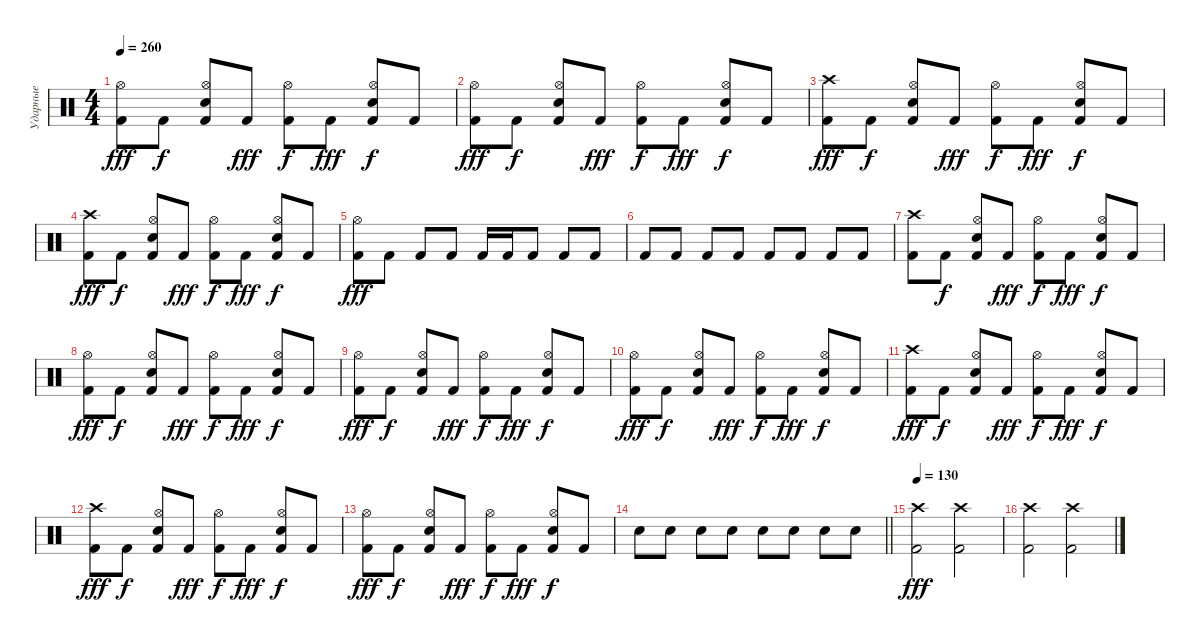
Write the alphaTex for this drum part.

\track ("Ударные" "Ударные") {instrument percussion}
\staff {score}
\articulation defaults
\ts (4 4)
\tempo 260
\clef neutral
\ks c
("Kick (hit) 2" "Hi-Hat (open)").8{dy fff} "Kick (hit) 2".8{dy f} ("Kick (hit) 2" "Snare (hit) 2" "Hi-Hat (open)").8 "Kick (hit) 2".8{dy fff} ("Kick (hit) 2" "Hi-Hat (open)").8{dy f} "Kick (hit) 2".8{dy fff} ("Kick (hit) 2" "Snare (hit) 2" "Hi-Hat (open)").8{dy f} "Kick (hit) 2".8 |
("Kick (hit) 2" "Hi-Hat (open)").8{dy fff} "Kick (hit) 2".8{dy f} ("Kick (hit) 2" "Snare (hit) 2" "Hi-Hat (open)").8 "Kick (hit) 2".8{dy fff} ("Kick (hit) 2" "Hi-Hat (open)").8{dy f} "Kick (hit) 2".8{dy fff} ("Kick (hit) 2" "Snare (hit) 2" "Hi-Hat (open)").8{dy f} "Kick (hit) 2".8 |
("Kick (hit) 2" "Crash high (hit)").8{dy fff} "Kick (hit) 2".8{dy f} ("Kick (hit) 2" "Snare (hit) 2" "Hi-Hat (open)").8 "Kick (hit) 2".8{dy fff} ("Kick (hit) 2" "Hi-Hat (open)").8{dy f} "Kick (hit) 2".8{dy fff} ("Kick (hit) 2" "Snare (hit) 2" "Hi-Hat (open)").8{dy f} "Kick (hit) 2".8 |
("Kick (hit) 2" "Crash high (hit)").8{dy fff} "Kick (hit) 2".8{dy f} ("Kick (hit) 2" "Snare (hit) 2" "Hi-Hat (open)").8 "Kick (hit) 2".8{dy fff} ("Kick (hit) 2" "Hi-Hat (open)").8{dy f} "Kick (hit) 2".8{dy fff} ("Kick (hit) 2" "Snare (hit) 2" "Hi-Hat (open)").8{dy f} "Kick (hit) 2".8 |
("Kick (hit) 2" "Hi-Hat (open)").8{dy fff} "Kick (hit) 2".8 "Kick (hit) 2".8 "Kick (hit) 2".8 "Kick (hit) 2".16 "Kick (hit) 2".16 "Kick (hit) 2".8 "Kick (hit) 2".8 "Kick (hit) 2".8 |
"Kick (hit) 2".8 "Kick (hit) 2".8 "Kick (hit) 2".8 "Kick (hit) 2".8 "Kick (hit) 2".8 "Kick (hit) 2".8 "Kick (hit) 2".8 "Kick (hit) 2".8 |
("Kick (hit) 2" "Crash high (hit)").8 "Kick (hit) 2".8{dy f} ("Kick (hit) 2" "Snare (hit) 2" "Hi-Hat (open)").8 "Kick (hit) 2".8{dy fff} ("Kick (hit) 2" "Hi-Hat (open)").8{dy f} "Kick (hit) 2".8{dy fff} ("Kick (hit) 2" "Snare (hit) 2" "Hi-Hat (open)").8{dy f} "Kick (hit) 2".8 |
("Kick (hit) 2" "Hi-Hat (open)").8{dy fff} "Kick (hit) 2".8{dy f} ("Kick (hit) 2" "Snare (hit) 2" "Hi-Hat (open)").8 "Kick (hit) 2".8{dy fff} ("Kick (hit) 2" "Hi-Hat (open)").8{dy f} "Kick (hit) 2".8{dy fff} ("Kick (hit) 2" "Snare (hit) 2" "Hi-Hat (open)").8{dy f} "Kick (hit) 2".8 |
("Kick (hit) 2" "Hi-Hat (open)").8{dy fff} "Kick (hit) 2".8{dy f} ("Kick (hit) 2" "Snare (hit) 2" "Hi-Hat (open)").8 "Kick (hit) 2".8{dy fff} ("Kick (hit) 2" "Hi-Hat (open)").8{dy f} "Kick (hit) 2".8{dy fff} ("Kick (hit) 2" "Snare (hit) 2" "Hi-Hat (open)").8{dy f} "Kick (hit) 2".8 |
("Kick (hit) 2" "Hi-Hat (open)").8{dy fff} "Kick (hit) 2".8{dy f} ("Kick (hit) 2" "Snare (hit) 2" "Hi-Hat (open)").8 "Kick (hit) 2".8{dy fff} ("Kick (hit) 2" "Hi-Hat (open)").8{dy f} "Kick (hit) 2".8{dy fff} ("Kick (hit) 2" "Snare (hit) 2" "Hi-Hat (open)").8{dy f} "Kick (hit) 2".8 |
("Kick (hit) 2" "Crash high (hit)").8{dy fff} "Kick (hit) 2".8{dy f} ("Kick (hit) 2" "Snare (hit) 2" "Hi-Hat (open)").8 "Kick (hit) 2".8{dy fff} ("Kick (hit) 2" "Hi-Hat (open)").8{dy f} "Kick (hit) 2".8{dy fff} ("Kick (hit) 2" "Snare (hit) 2" "Hi-Hat (open)").8{dy f} "Kick (hit) 2".8 |
("Kick (hit) 2" "Crash high (hit)").8{dy fff} "Kick (hit) 2".8{dy f} ("Kick (hit) 2" "Snare (hit) 2" "Hi-Hat (open)").8 "Kick (hit) 2".8{dy fff} ("Kick (hit) 2" "Hi-Hat (open)").8{dy f} "Kick (hit) 2".8{dy fff} ("Kick (hit) 2" "Snare (hit) 2" "Hi-Hat (open)").8{dy f} "Kick (hit) 2".8 |
("Kick (hit) 2" "Hi-Hat (open)").8{dy fff} "Kick (hit) 2".8{dy f} ("Kick (hit) 2" "Snare (hit) 2" "Hi-Hat (open)").8 "Kick (hit) 2".8{dy fff} ("Kick (hit) 2" "Hi-Hat (open)").8{dy f} "Kick (hit) 2".8{dy fff} ("Kick (hit) 2" "Snare (hit) 2" "Hi-Hat (open)").8{dy f} "Kick (hit) 2".8 |
\barLineRight lightlight "Snare (hit) 2".8 "Snare (hit) 2".8 "Snare (hit) 2".8 "Snare (hit) 2".8 "Snare (hit) 2".8 "Snare (hit) 2".8 "Snare (hit) 2".8 "Snare (hit) 2".8
|
\tempo 130
("Kick (hit) 2" "Crash high (hit)").2{dy fff} ("Kick (hit) 2" "Crash high (hit)").2 |
("Kick (hit) 2" "Crash high (hit)").2 ("Kick (hit) 2" "Crash high (hit)").2
